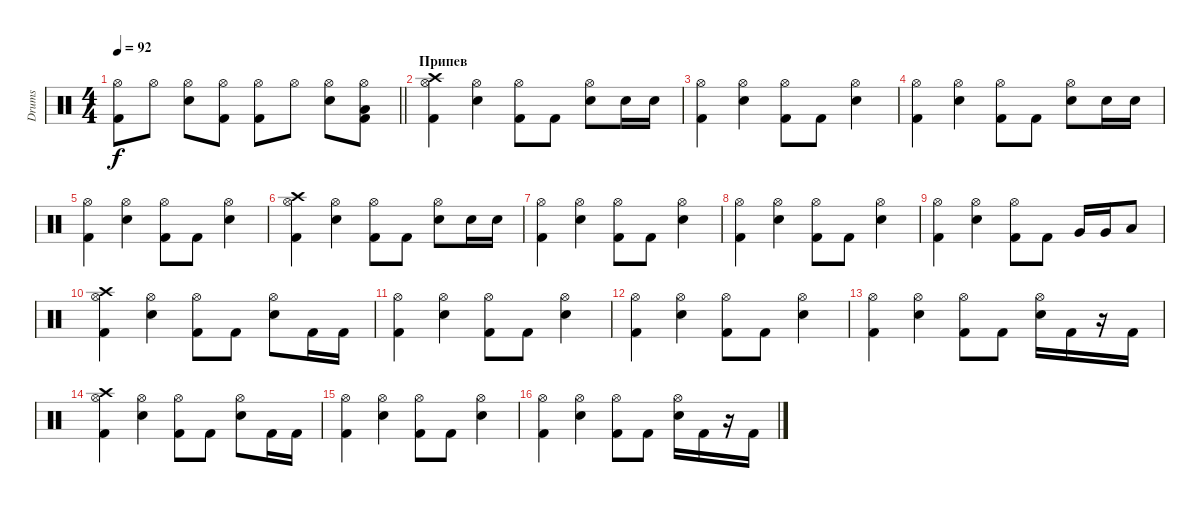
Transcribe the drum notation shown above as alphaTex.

\track ("Drums" "Drums") {instrument percussion}
\staff {score}
\articulation defaults
\ts (4 4)
\tempo 92
\clef neutral
\barLineRight lightlight
\ks c
("Kick (hit) 2" "Hi-Hat (open)").8{dy f} "Hi-Hat (open)".8 ("Electric Snare (hit)" "Hi-Hat (open)").8 ("Kick (hit) 2" "Hi-Hat (open)").8 ("Kick (hit) 2" "Hi-Hat (open)").8 "Hi-Hat (open)".8 ("Electric Snare (hit)" "Hi-Hat (open)").8 ("Kick (hit) 2" "Hi-Hat (open)" "Low Tom (hit)").8 |
\section ("" "Припев")
("Kick (hit) 2" "Hi-Hat (open)" "Crash high (hit)").4 ("Electric Snare (hit)" "Hi-Hat (open)").4 ("Kick (hit) 2" "Hi-Hat (open)").8 "Kick (hit) 2".8 ("Electric Snare (hit)" "Hi-Hat (open)").8 "Electric Snare (hit)".16 "Electric Snare (hit)".16 |
("Kick (hit) 2" "Hi-Hat (open)").4 ("Electric Snare (hit)" "Hi-Hat (open)").4 ("Kick (hit) 2" "Hi-Hat (open)").8 "Kick (hit) 2".8 ("Electric Snare (hit)" "Hi-Hat (open)").4 |
("Kick (hit) 2" "Hi-Hat (open)").4 ("Electric Snare (hit)" "Hi-Hat (open)").4 ("Kick (hit) 2" "Hi-Hat (open)").8 "Kick (hit) 2".8 ("Electric Snare (hit)" "Hi-Hat (open)").8 "Electric Snare (hit)".16 "Electric Snare (hit)".16 |
("Kick (hit) 2" "Hi-Hat (open)").4 ("Electric Snare (hit)" "Hi-Hat (open)").4 ("Kick (hit) 2" "Hi-Hat (open)").8 "Kick (hit) 2".8 ("Electric Snare (hit)" "Hi-Hat (open)").4 |
("Kick (hit) 2" "Hi-Hat (open)" "Crash high (hit)").4 ("Electric Snare (hit)" "Hi-Hat (open)").4 ("Kick (hit) 2" "Hi-Hat (open)").8 "Kick (hit) 2".8 ("Electric Snare (hit)" "Hi-Hat (open)").8 "Electric Snare (hit)".16 "Electric Snare (hit)".16 |
("Kick (hit) 2" "Hi-Hat (open)").4 ("Electric Snare (hit)" "Hi-Hat (open)").4 ("Kick (hit) 2" "Hi-Hat (open)").8 "Kick (hit) 2".8 ("Electric Snare (hit)" "Hi-Hat (open)").4 |
("Kick (hit) 2" "Hi-Hat (open)").4 ("Electric Snare (hit)" "Hi-Hat (open)").4 ("Kick (hit) 2" "Hi-Hat (open)").8 "Kick (hit) 2".8 ("Electric Snare (hit)" "Hi-Hat (open)").4 |
("Kick (hit) 2" "Hi-Hat (open)").4 ("Electric Snare (hit)" "Hi-Hat (open)").4 ("Kick (hit) 2" "Hi-Hat (open)").8 "Kick (hit) 2".8 "Very Low Tom (hit)".16 "Very Low Tom (hit)".16 "Low Tom (hit)".8 |
("Kick (hit) 2" "Hi-Hat (open)" "Crash high (hit)").4 ("Electric Snare (hit)" "Hi-Hat (open)").4 ("Kick (hit) 2" "Hi-Hat (open)").8 "Kick (hit) 2".8 ("Electric Snare (hit)" "Hi-Hat (open)").8 "Kick (hit) 2".16 "Kick (hit) 2".16 |
("Kick (hit) 2" "Hi-Hat (open)").4 ("Electric Snare (hit)" "Hi-Hat (open)").4 ("Kick (hit) 2" "Hi-Hat (open)").8 "Kick (hit) 2".8 ("Electric Snare (hit)" "Hi-Hat (open)").4 |
("Kick (hit) 2" "Hi-Hat (open)").4 ("Electric Snare (hit)" "Hi-Hat (open)").4 ("Kick (hit) 2" "Hi-Hat (open)").8 "Kick (hit) 2".8 ("Electric Snare (hit)" "Hi-Hat (open)").4 |
("Kick (hit) 2" "Hi-Hat (open)").4 ("Electric Snare (hit)" "Hi-Hat (open)").4 ("Kick (hit) 2" "Hi-Hat (open)").8 "Kick (hit) 2".8 ("Electric Snare (hit)" "Hi-Hat (open)").16 "Kick (hit) 2".16 r.16 "Kick (hit) 2".16 |
("Kick (hit) 2" "Hi-Hat (open)" "Crash high (hit)").4 ("Electric Snare (hit)" "Hi-Hat (open)").4 ("Kick (hit) 2" "Hi-Hat (open)").8 "Kick (hit) 2".8 ("Electric Snare (hit)" "Hi-Hat (open)").8 "Kick (hit) 2".16 "Kick (hit) 2".16 |
("Kick (hit) 2" "Hi-Hat (open)").4 ("Electric Snare (hit)" "Hi-Hat (open)").4 ("Kick (hit) 2" "Hi-Hat (open)").8 "Kick (hit) 2".8 ("Electric Snare (hit)" "Hi-Hat (open)").4 |
("Kick (hit) 2" "Hi-Hat (open)").4 ("Electric Snare (hit)" "Hi-Hat (open)").4 ("Kick (hit) 2" "Hi-Hat (open)").8 "Kick (hit) 2".8 ("Electric Snare (hit)" "Hi-Hat (open)").16 "Kick (hit) 2".16 r.16 "Kick (hit) 2".16
